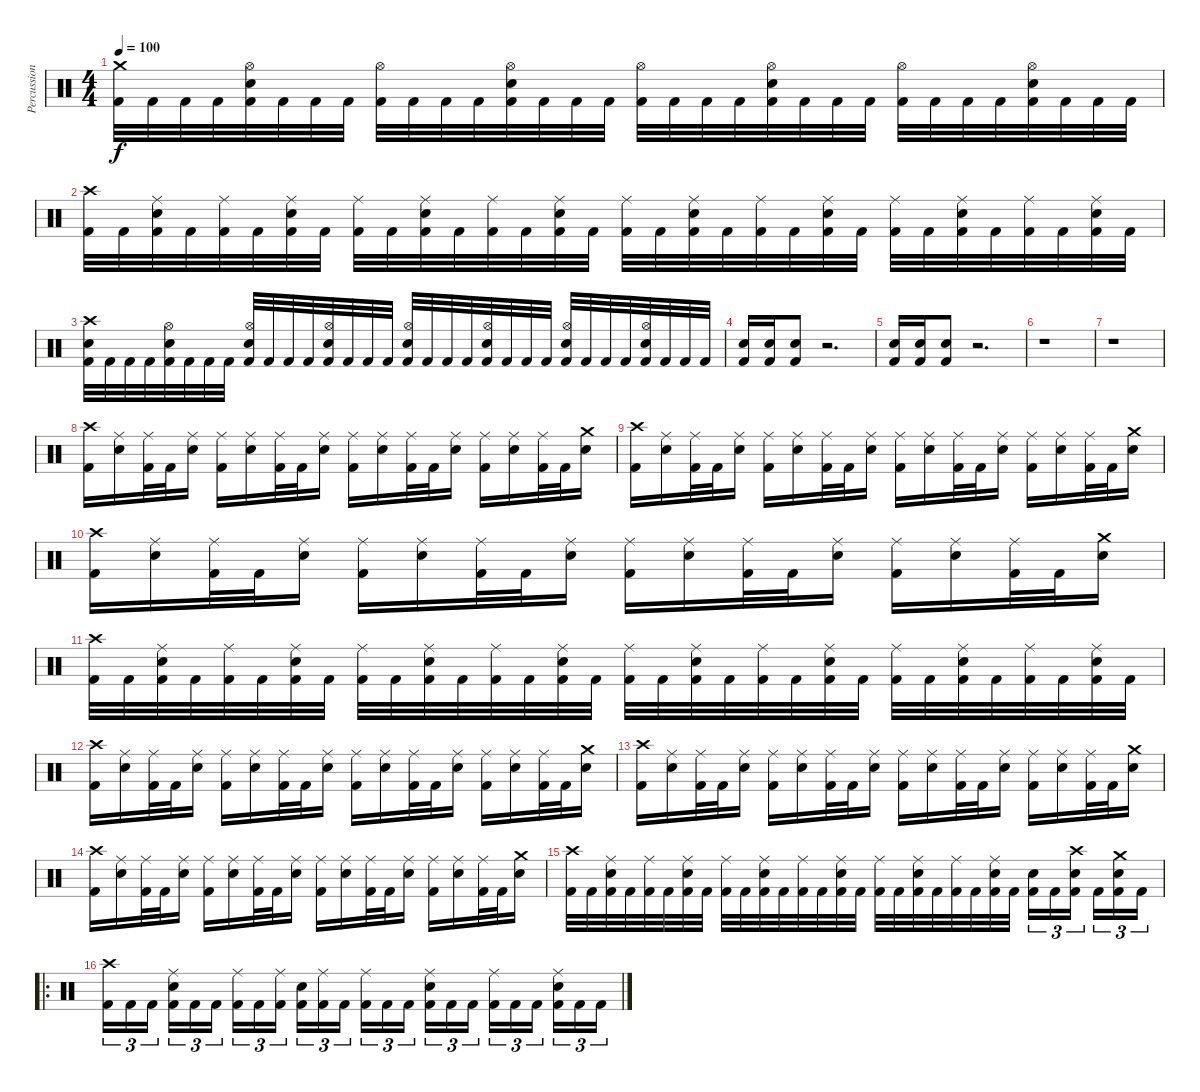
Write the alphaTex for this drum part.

\track ("Percussion" "Percussion") {instrument percussion}
\staff {score}
\articulation defaults
\ts (4 4)
\tempo 100
\clef neutral
\ks c
("Crash medium (hit)" "Kick (hit) 2").32{dy f} "Kick (hit) 2".32 "Kick (hit) 2".32 "Kick (hit) 2".32 ("Hi-Hat (open)" "Electric Snare (hit)" "Kick (hit) 2").32 "Kick (hit) 2".32 "Kick (hit) 2".32 "Kick (hit) 2".32 ("Hi-Hat (open)" "Kick (hit) 2").32 "Kick (hit) 2".32 "Kick (hit) 2".32 "Kick (hit) 2".32 ("Hi-Hat (open)" "Electric Snare (hit)" "Kick (hit) 2").32 "Kick (hit) 2".32 "Kick (hit) 2".32 "Kick (hit) 2".32 ("Hi-Hat (open)" "Kick (hit) 2").32 "Kick (hit) 2".32 "Kick (hit) 2".32 "Kick (hit) 2".32 ("Hi-Hat (open)" "Electric Snare (hit)" "Kick (hit) 2").32 "Kick (hit) 2".32 "Kick (hit) 2".32 "Kick (hit) 2".32 ("Hi-Hat (open)" "Kick (hit) 2").32 "Kick (hit) 2".32 "Kick (hit) 2".32 "Kick (hit) 2".32 ("Hi-Hat (open)" "Electric Snare (hit)" "Kick (hit) 2").32 "Kick (hit) 2".32 "Kick (hit) 2".32 "Kick (hit) 2".32 |
("Crash high (hit)" "Kick (hit) 2").32 "Kick (hit) 2".32 ("Ride (middle)" "Electric Snare (hit)" "Kick (hit) 2").32 "Kick (hit) 2".32 ("Ride (middle)" "Kick (hit) 2").32 "Kick (hit) 2".32 ("Ride (middle)" "Electric Snare (hit)" "Kick (hit) 2").32 "Kick (hit) 2".32 ("Ride (middle)" "Kick (hit) 2").32 "Kick (hit) 2".32 ("Ride (middle)" "Electric Snare (hit)" "Kick (hit) 2").32 "Kick (hit) 2".32 ("Ride (middle)" "Kick (hit) 2").32 "Kick (hit) 2".32 ("Ride (middle)" "Electric Snare (hit)" "Kick (hit) 2").32 "Kick (hit) 2".32 ("Ride (middle)" "Kick (hit) 2").32 "Kick (hit) 2".32 ("Ride (middle)" "Electric Snare (hit)" "Kick (hit) 2").32 "Kick (hit) 2".32 ("Ride (middle)" "Kick (hit) 2").32 "Kick (hit) 2".32 ("Ride (middle)" "Electric Snare (hit)" "Kick (hit) 2").32 "Kick (hit) 2".32 ("Ride (middle)" "Kick (hit) 2").32 "Kick (hit) 2".32 ("Ride (middle)" "Electric Snare (hit)" "Kick (hit) 2").32 "Kick (hit) 2".32 ("Ride (middle)" "Kick (hit) 2").32 "Kick (hit) 2".32 ("Ride (middle)" "Electric Snare (hit)" "Kick (hit) 2").32 "Kick (hit) 2".32 |
("Crash high (hit)" "Electric Snare (hit)" "Kick (hit) 2").32 "Kick (hit) 2".32 "Kick (hit) 2".32 "Kick (hit) 2".32 ("Hi-Hat (open)" "Electric Snare (hit)" "Kick (hit) 2").32 "Kick (hit) 2".32 "Kick (hit) 2".32 "Kick (hit) 2".32 ("Hi-Hat (open)" "Electric Snare (hit)" "Kick (hit) 2").32 "Kick (hit) 2".32 "Kick (hit) 2".32 "Kick (hit) 2".32 ("Hi-Hat (open)" "Electric Snare (hit)" "Kick (hit) 2").32 "Kick (hit) 2".32 "Kick (hit) 2".32 "Kick (hit) 2".32 ("Hi-Hat (open)" "Electric Snare (hit)" "Kick (hit) 2").32 "Kick (hit) 2".32 "Kick (hit) 2".32 "Kick (hit) 2".32 ("Hi-Hat (open)" "Electric Snare (hit)" "Kick (hit) 2").32 "Kick (hit) 2".32 "Kick (hit) 2".32 "Kick (hit) 2".32 ("Hi-Hat (open)" "Electric Snare (hit)" "Kick (hit) 2").32 "Kick (hit) 2".32 "Kick (hit) 2".32 "Kick (hit) 2".32 ("Hi-Hat (open)" "Electric Snare (hit)" "Kick (hit) 2").32 "Kick (hit) 2".32 "Kick (hit) 2".32 "Kick (hit) 2".32 |
("Electric Snare (hit)" "Kick (hit) 2").16 ("Electric Snare (hit)" "Kick (hit) 2").16 ("Electric Snare (hit)" "Kick (hit) 2").8 r.2{d} |
("Electric Snare (hit)" "Kick (hit) 2").16 ("Electric Snare (hit)" "Kick (hit) 2").16 ("Electric Snare (hit)" "Kick (hit) 2").8 r.2{d} |
r.1 |
r.1 |
("Crash high (hit)" "Kick (hit) 2").16 ("Ride (middle)" "Electric Snare (hit)").16 ("Ride (middle)" "Kick (hit) 2").32 "Kick (hit) 2".32 ("Ride (middle)" "Electric Snare (hit)").16 ("Ride (middle)" "Kick (hit) 2").16 ("Ride (middle)" "Electric Snare (hit)").16 ("Ride (middle)" "Kick (hit) 2").32 "Kick (hit) 2".32 ("Ride (middle)" "Electric Snare (hit)").16 ("Ride (middle)" "Kick (hit) 2").16 ("Ride (middle)" "Electric Snare (hit)").16 ("Ride (middle)" "Kick (hit) 2").32 "Kick (hit) 2".32 ("Ride (middle)" "Electric Snare (hit)").16 ("Ride (middle)" "Kick (hit) 2").16 ("Ride (middle)" "Electric Snare (hit)").16 ("Ride (middle)" "Kick (hit) 2").32 "Kick (hit) 2".32 ("Crash medium (hit)" "Electric Snare (hit)").16 |
("Crash high (hit)" "Kick (hit) 2").16 ("Ride (middle)" "Electric Snare (hit)").16 ("Ride (middle)" "Kick (hit) 2").32 "Kick (hit) 2".32 ("Ride (middle)" "Electric Snare (hit)").16 ("Ride (middle)" "Kick (hit) 2").16 ("Ride (middle)" "Electric Snare (hit)").16 ("Ride (middle)" "Kick (hit) 2").32 "Kick (hit) 2".32 ("Ride (middle)" "Electric Snare (hit)").16 ("Ride (middle)" "Kick (hit) 2").16 ("Ride (middle)" "Electric Snare (hit)").16 ("Ride (middle)" "Kick (hit) 2").32 "Kick (hit) 2".32 ("Ride (middle)" "Electric Snare (hit)").16 ("Ride (middle)" "Kick (hit) 2").16 ("Ride (middle)" "Electric Snare (hit)").16 ("Ride (middle)" "Kick (hit) 2").32 "Kick (hit) 2".32 ("Crash medium (hit)" "Electric Snare (hit)").16 |
("Crash high (hit)" "Kick (hit) 2").16 ("Ride (middle)" "Electric Snare (hit)").16 ("Ride (middle)" "Kick (hit) 2").32 "Kick (hit) 2".32 ("Ride (middle)" "Electric Snare (hit)").16 ("Ride (middle)" "Kick (hit) 2").16 ("Ride (middle)" "Electric Snare (hit)").16 ("Ride (middle)" "Kick (hit) 2").32 "Kick (hit) 2".32 ("Ride (middle)" "Electric Snare (hit)").16 ("Ride (middle)" "Kick (hit) 2").16 ("Ride (middle)" "Electric Snare (hit)").16 ("Ride (middle)" "Kick (hit) 2").32 "Kick (hit) 2".32 ("Ride (middle)" "Electric Snare (hit)").16 ("Ride (middle)" "Kick (hit) 2").16 ("Ride (middle)" "Electric Snare (hit)").16 ("Ride (middle)" "Kick (hit) 2").32 "Kick (hit) 2".32 ("Crash medium (hit)" "Electric Snare (hit)").16 |
("Crash high (hit)" "Kick (hit) 2").32 "Kick (hit) 2".32 ("Ride (middle)" "Electric Snare (hit)" "Kick (hit) 2").32 "Kick (hit) 2".32 ("Ride (middle)" "Kick (hit) 2").32 "Kick (hit) 2".32 ("Ride (middle)" "Electric Snare (hit)" "Kick (hit) 2").32 "Kick (hit) 2".32 ("Ride (middle)" "Kick (hit) 2").32 "Kick (hit) 2".32 ("Ride (middle)" "Electric Snare (hit)" "Kick (hit) 2").32 "Kick (hit) 2".32 ("Ride (middle)" "Kick (hit) 2").32 "Kick (hit) 2".32 ("Ride (middle)" "Electric Snare (hit)" "Kick (hit) 2").32 "Kick (hit) 2".32 ("Ride (middle)" "Kick (hit) 2").32 "Kick (hit) 2".32 ("Ride (middle)" "Electric Snare (hit)" "Kick (hit) 2").32 "Kick (hit) 2".32 ("Ride (middle)" "Kick (hit) 2").32 "Kick (hit) 2".32 ("Ride (middle)" "Electric Snare (hit)" "Kick (hit) 2").32 "Kick (hit) 2".32 ("Ride (middle)" "Kick (hit) 2").32 "Kick (hit) 2".32 ("Ride (middle)" "Electric Snare (hit)" "Kick (hit) 2").32 "Kick (hit) 2".32 ("Ride (middle)" "Kick (hit) 2").32 "Kick (hit) 2".32 ("Ride (middle)" "Electric Snare (hit)" "Kick (hit) 2").32 "Kick (hit) 2".32 |
("Crash high (hit)" "Kick (hit) 2").16 ("Ride (middle)" "Electric Snare (hit)").16 ("Ride (middle)" "Kick (hit) 2").32 "Kick (hit) 2".32 ("Ride (middle)" "Electric Snare (hit)").16 ("Ride (middle)" "Kick (hit) 2").16 ("Ride (middle)" "Electric Snare (hit)").16 ("Ride (middle)" "Kick (hit) 2").32 "Kick (hit) 2".32 ("Ride (middle)" "Electric Snare (hit)").16 ("Ride (middle)" "Kick (hit) 2").16 ("Ride (middle)" "Electric Snare (hit)").16 ("Ride (middle)" "Kick (hit) 2").32 "Kick (hit) 2".32 ("Ride (middle)" "Electric Snare (hit)").16 ("Ride (middle)" "Kick (hit) 2").16 ("Ride (middle)" "Electric Snare (hit)").16 ("Ride (middle)" "Kick (hit) 2").32 "Kick (hit) 2".32 ("Crash medium (hit)" "Electric Snare (hit)").16 |
("Crash high (hit)" "Kick (hit) 2").16 ("Ride (middle)" "Electric Snare (hit)").16 ("Ride (middle)" "Kick (hit) 2").32 "Kick (hit) 2".32 ("Ride (middle)" "Electric Snare (hit)").16 ("Ride (middle)" "Kick (hit) 2").16 ("Ride (middle)" "Electric Snare (hit)").16 ("Ride (middle)" "Kick (hit) 2").32 "Kick (hit) 2".32 ("Ride (middle)" "Electric Snare (hit)").16 ("Ride (middle)" "Kick (hit) 2").16 ("Ride (middle)" "Electric Snare (hit)").16 ("Ride (middle)" "Kick (hit) 2").32 "Kick (hit) 2".32 ("Ride (middle)" "Electric Snare (hit)").16 ("Ride (middle)" "Kick (hit) 2").16 ("Ride (middle)" "Electric Snare (hit)").16 ("Ride (middle)" "Kick (hit) 2").32 "Kick (hit) 2".32 ("Crash medium (hit)" "Electric Snare (hit)").16 |
("Crash high (hit)" "Kick (hit) 2").16 ("Ride (middle)" "Electric Snare (hit)").16 ("Ride (middle)" "Kick (hit) 2").32 "Kick (hit) 2".32 ("Ride (middle)" "Electric Snare (hit)").16 ("Ride (middle)" "Kick (hit) 2").16 ("Ride (middle)" "Electric Snare (hit)").16 ("Ride (middle)" "Kick (hit) 2").32 "Kick (hit) 2".32 ("Ride (middle)" "Electric Snare (hit)").16 ("Ride (middle)" "Kick (hit) 2").16 ("Ride (middle)" "Electric Snare (hit)").16 ("Ride (middle)" "Kick (hit) 2").32 "Kick (hit) 2".32 ("Ride (middle)" "Electric Snare (hit)").16 ("Ride (middle)" "Kick (hit) 2").16 ("Ride (middle)" "Electric Snare (hit)").16 ("Ride (middle)" "Kick (hit) 2").32 "Kick (hit) 2".32 ("Crash medium (hit)" "Electric Snare (hit)").16 |
("Crash high (hit)" "Kick (hit) 2").32 "Kick (hit) 2".32 ("Ride (middle)" "Electric Snare (hit)" "Kick (hit) 2").32 "Kick (hit) 2".32 ("Ride (middle)" "Kick (hit) 2").32 "Kick (hit) 2".32 ("Ride (middle)" "Electric Snare (hit)" "Kick (hit) 2").32 "Kick (hit) 2".32 ("Ride (middle)" "Kick (hit) 2").32 "Kick (hit) 2".32 ("Ride (middle)" "Electric Snare (hit)" "Kick (hit) 2").32 "Kick (hit) 2".32 ("Ride (middle)" "Kick (hit) 2").32 "Kick (hit) 2".32 ("Ride (middle)" "Electric Snare (hit)" "Kick (hit) 2").32 "Kick (hit) 2".32 ("Ride (middle)" "Kick (hit) 2").32 "Kick (hit) 2".32 ("Ride (middle)" "Electric Snare (hit)" "Kick (hit) 2").32 "Kick (hit) 2".32 ("Ride (middle)" "Kick (hit) 2").32 "Kick (hit) 2".32 ("Ride (middle)" "Electric Snare (hit)" "Kick (hit) 2").32 "Kick (hit) 2".32 ("Electric Snare (hit)" "Kick (hit) 2").16{tu (3 2)} "Kick (hit) 2".16{tu (3 2)} ("Crash high (hit)" "Electric Snare (hit)" "Kick (hit) 2").16{tu (3 2)} "Kick (hit) 2".16{tu (3 2)} ("Crash medium (hit)" "Electric Snare (hit)" "Kick (hit) 2").16{tu (3 2)} "Kick (hit) 2".16{tu (3 2)} |
\ro
("Crash high (hit)" "Kick (hit) 2").16{tu (3 2)} "Kick (hit) 2".16{tu (3 2)} "Kick (hit) 2".16{tu (3 2)} ("Ride (middle)" "Electric Snare (hit)" "Kick (hit) 2").16{tu (3 2)} "Kick (hit) 2".16{tu (3 2)} "Kick (hit) 2".16{tu (3 2)} ("Ride (middle)" "Kick (hit) 2").16{tu (3 2)} "Kick (hit) 2".16{tu (3 2)} ("Ride (middle)" "Kick (hit) 2").16{tu (3 2)} ("Electric Snare (hit)" "Kick (hit) 2").16{tu (3 2)} ("Ride (middle)" "Kick (hit) 2").16{tu (3 2)} "Kick (hit) 2".16{tu (3 2)} ("Ride (middle)" "Kick (hit) 2").16{tu (3 2)} "Kick (hit) 2".16{tu (3 2)} "Kick (hit) 2".16{tu (3 2)} ("Ride (middle)" "Electric Snare (hit)" "Kick (hit) 2").16{tu (3 2)} "Kick (hit) 2".16{tu (3 2)} "Kick (hit) 2".16{tu (3 2)} ("Ride (middle)" "Kick (hit) 2").16{tu (3 2)} "Kick (hit) 2".16{tu (3 2)} "Kick (hit) 2".16{tu (3 2)} ("Ride (middle)" "Electric Snare (hit)" "Kick (hit) 2").16{tu (3 2)} "Kick (hit) 2".16{tu (3 2)} "Kick (hit) 2".16{tu (3 2)}
